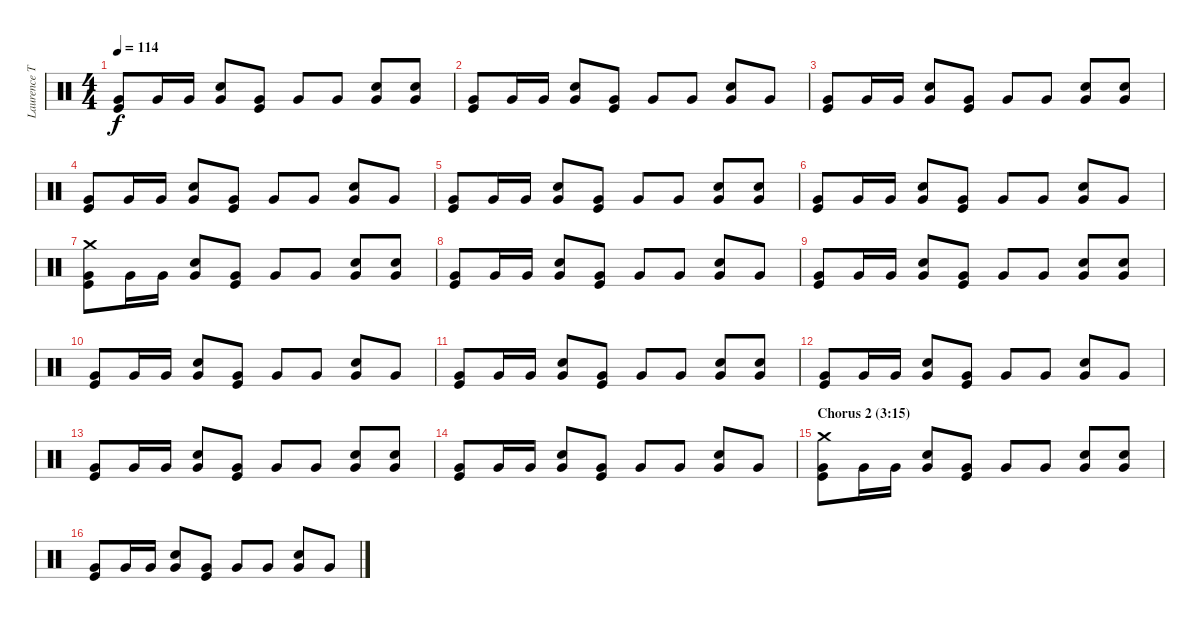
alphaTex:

\track ("Laurence Tolhurst (drums)" "Laurence T") {instrument percussion}
\staff {score}
\articulation defaults
\ts (4 4)
\tempo 114
\clef neutral
\ks c
("Very Low Tom (hit)" "Kick (hit)").8{dy f} "Very Low Tom (hit)".16 "Very Low Tom (hit)".16 ("Very Low Tom (hit)" "Snare (hit) 2").8 ("Very Low Tom (hit)" "Kick (hit)").8 "Very Low Tom (hit)".8 "Very Low Tom (hit)".8 ("Very Low Tom (hit)" "Snare (hit) 2").8 ("Very Low Tom (hit)" "Snare (hit) 2").8 |
("Very Low Tom (hit)" "Kick (hit)").8 "Very Low Tom (hit)".16 "Very Low Tom (hit)".16 ("Very Low Tom (hit)" "Snare (hit) 2").8 ("Very Low Tom (hit)" "Kick (hit)").8 "Very Low Tom (hit)".8 "Very Low Tom (hit)".8 ("Very Low Tom (hit)" "Snare (hit) 2").8 "Very Low Tom (hit)".8 |
("Very Low Tom (hit)" "Kick (hit)").8 "Very Low Tom (hit)".16 "Very Low Tom (hit)".16 ("Very Low Tom (hit)" "Snare (hit) 2").8 ("Very Low Tom (hit)" "Kick (hit)").8 "Very Low Tom (hit)".8 "Very Low Tom (hit)".8 ("Very Low Tom (hit)" "Snare (hit) 2").8 ("Very Low Tom (hit)" "Snare (hit) 2").8 |
("Very Low Tom (hit)" "Kick (hit)").8 "Very Low Tom (hit)".16 "Very Low Tom (hit)".16 ("Very Low Tom (hit)" "Snare (hit) 2").8 ("Very Low Tom (hit)" "Kick (hit)").8 "Very Low Tom (hit)".8 "Very Low Tom (hit)".8 ("Very Low Tom (hit)" "Snare (hit) 2").8 "Very Low Tom (hit)".8 |
("Very Low Tom (hit)" "Kick (hit)").8 "Very Low Tom (hit)".16 "Very Low Tom (hit)".16 ("Very Low Tom (hit)" "Snare (hit) 2").8 ("Very Low Tom (hit)" "Kick (hit)").8 "Very Low Tom (hit)".8 "Very Low Tom (hit)".8 ("Very Low Tom (hit)" "Snare (hit) 2").8 ("Very Low Tom (hit)" "Snare (hit) 2").8 |
("Very Low Tom (hit)" "Kick (hit)").8 "Very Low Tom (hit)".16 "Very Low Tom (hit)".16 ("Very Low Tom (hit)" "Snare (hit) 2").8 ("Very Low Tom (hit)" "Kick (hit)").8 "Very Low Tom (hit)".8 "Very Low Tom (hit)".8 ("Very Low Tom (hit)" "Snare (hit) 2").8 "Very Low Tom (hit)".8 |
("Crash medium (hit)" "Very Low Tom (hit)" "Kick (hit)").8 "Very Low Tom (hit)".16 "Very Low Tom (hit)".16 ("Very Low Tom (hit)" "Snare (hit) 2").8 ("Very Low Tom (hit)" "Kick (hit)").8 "Very Low Tom (hit)".8 "Very Low Tom (hit)".8 ("Very Low Tom (hit)" "Snare (hit) 2").8 ("Very Low Tom (hit)" "Snare (hit) 2").8 |
("Very Low Tom (hit)" "Kick (hit)").8 "Very Low Tom (hit)".16 "Very Low Tom (hit)".16 ("Very Low Tom (hit)" "Snare (hit) 2").8 ("Very Low Tom (hit)" "Kick (hit)").8 "Very Low Tom (hit)".8 "Very Low Tom (hit)".8 ("Very Low Tom (hit)" "Snare (hit) 2").8 "Very Low Tom (hit)".8 |
("Very Low Tom (hit)" "Kick (hit)").8 "Very Low Tom (hit)".16 "Very Low Tom (hit)".16 ("Very Low Tom (hit)" "Snare (hit) 2").8 ("Very Low Tom (hit)" "Kick (hit)").8 "Very Low Tom (hit)".8 "Very Low Tom (hit)".8 ("Very Low Tom (hit)" "Snare (hit) 2").8 ("Very Low Tom (hit)" "Snare (hit) 2").8 |
("Very Low Tom (hit)" "Kick (hit)").8 "Very Low Tom (hit)".16 "Very Low Tom (hit)".16 ("Very Low Tom (hit)" "Snare (hit) 2").8 ("Very Low Tom (hit)" "Kick (hit)").8 "Very Low Tom (hit)".8 "Very Low Tom (hit)".8 ("Very Low Tom (hit)" "Snare (hit) 2").8 "Very Low Tom (hit)".8 |
("Very Low Tom (hit)" "Kick (hit)").8 "Very Low Tom (hit)".16 "Very Low Tom (hit)".16 ("Very Low Tom (hit)" "Snare (hit) 2").8 ("Very Low Tom (hit)" "Kick (hit)").8 "Very Low Tom (hit)".8 "Very Low Tom (hit)".8 ("Very Low Tom (hit)" "Snare (hit) 2").8 ("Very Low Tom (hit)" "Snare (hit) 2").8 |
("Very Low Tom (hit)" "Kick (hit)").8 "Very Low Tom (hit)".16 "Very Low Tom (hit)".16 ("Very Low Tom (hit)" "Snare (hit) 2").8 ("Very Low Tom (hit)" "Kick (hit)").8 "Very Low Tom (hit)".8 "Very Low Tom (hit)".8 ("Very Low Tom (hit)" "Snare (hit) 2").8 "Very Low Tom (hit)".8 |
("Very Low Tom (hit)" "Kick (hit)").8 "Very Low Tom (hit)".16 "Very Low Tom (hit)".16 ("Very Low Tom (hit)" "Snare (hit) 2").8 ("Very Low Tom (hit)" "Kick (hit)").8 "Very Low Tom (hit)".8 "Very Low Tom (hit)".8 ("Very Low Tom (hit)" "Snare (hit) 2").8 ("Very Low Tom (hit)" "Snare (hit) 2").8 |
("Very Low Tom (hit)" "Kick (hit)").8 "Very Low Tom (hit)".16 "Very Low Tom (hit)".16 ("Very Low Tom (hit)" "Snare (hit) 2").8 ("Very Low Tom (hit)" "Kick (hit)").8 "Very Low Tom (hit)".8 "Very Low Tom (hit)".8 ("Very Low Tom (hit)" "Snare (hit) 2").8 "Very Low Tom (hit)".8 |
\section ("" "Chorus 2 (3:15)")
("Crash medium (hit)" "Very Low Tom (hit)" "Kick (hit)").8 "Very Low Tom (hit)".16 "Very Low Tom (hit)".16 ("Very Low Tom (hit)" "Snare (hit) 2").8 ("Very Low Tom (hit)" "Kick (hit)").8 "Very Low Tom (hit)".8 "Very Low Tom (hit)".8 ("Very Low Tom (hit)" "Snare (hit) 2").8 ("Very Low Tom (hit)" "Snare (hit) 2").8 |
("Very Low Tom (hit)" "Kick (hit)").8 "Very Low Tom (hit)".16 "Very Low Tom (hit)".16 ("Very Low Tom (hit)" "Snare (hit) 2").8 ("Very Low Tom (hit)" "Kick (hit)").8 "Very Low Tom (hit)".8 "Very Low Tom (hit)".8 ("Very Low Tom (hit)" "Snare (hit) 2").8 "Very Low Tom (hit)".8
